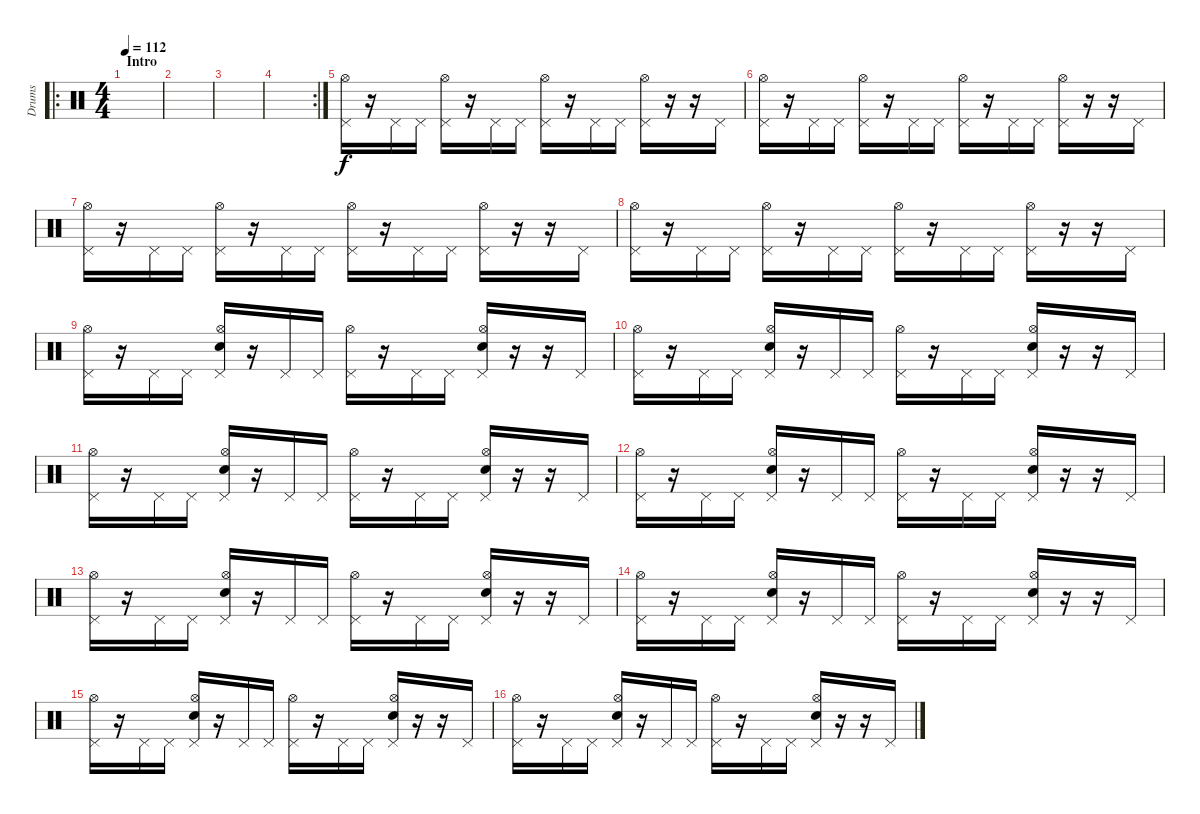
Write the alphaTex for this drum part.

\track ("Drums" "Drums") {instrument percussion}
\staff {score}
\articulation defaults
\ro
\ts (4 4)
\section ("" "Intro")
\tempo 112
\clef neutral
\ks c
|
|
|
\rc 2
|
("Pedal Hi-Hat (hit)" "Hi-Hat (open)").16 r.16 "Pedal Hi-Hat (hit)".16 "Pedal Hi-Hat (hit)".16 ("Pedal Hi-Hat (hit)" "Hi-Hat (open)").16 r.16 "Pedal Hi-Hat (hit)".16 "Pedal Hi-Hat (hit)".16 ("Pedal Hi-Hat (hit)" "Hi-Hat (open)").16 r.16 "Pedal Hi-Hat (hit)".16 "Pedal Hi-Hat (hit)".16 ("Pedal Hi-Hat (hit)" "Hi-Hat (open)").16 r.16 r.16 "Pedal Hi-Hat (hit)".16 |
("Pedal Hi-Hat (hit)" "Hi-Hat (open)").16 r.16 "Pedal Hi-Hat (hit)".16 "Pedal Hi-Hat (hit)".16 ("Pedal Hi-Hat (hit)" "Hi-Hat (open)").16 r.16 "Pedal Hi-Hat (hit)".16 "Pedal Hi-Hat (hit)".16 ("Pedal Hi-Hat (hit)" "Hi-Hat (open)").16 r.16 "Pedal Hi-Hat (hit)".16 "Pedal Hi-Hat (hit)".16 ("Pedal Hi-Hat (hit)" "Hi-Hat (open)").16 r.16 r.16 "Pedal Hi-Hat (hit)".16 |
("Pedal Hi-Hat (hit)" "Hi-Hat (open)").16 r.16 "Pedal Hi-Hat (hit)".16 "Pedal Hi-Hat (hit)".16 ("Pedal Hi-Hat (hit)" "Hi-Hat (open)").16 r.16 "Pedal Hi-Hat (hit)".16 "Pedal Hi-Hat (hit)".16 ("Pedal Hi-Hat (hit)" "Hi-Hat (open)").16 r.16 "Pedal Hi-Hat (hit)".16 "Pedal Hi-Hat (hit)".16 ("Pedal Hi-Hat (hit)" "Hi-Hat (open)").16 r.16 r.16 "Pedal Hi-Hat (hit)".16 |
("Pedal Hi-Hat (hit)" "Hi-Hat (open)").16 r.16 "Pedal Hi-Hat (hit)".16 "Pedal Hi-Hat (hit)".16 ("Pedal Hi-Hat (hit)" "Hi-Hat (open)").16 r.16 "Pedal Hi-Hat (hit)".16 "Pedal Hi-Hat (hit)".16 ("Pedal Hi-Hat (hit)" "Hi-Hat (open)").16 r.16 "Pedal Hi-Hat (hit)".16 "Pedal Hi-Hat (hit)".16 ("Pedal Hi-Hat (hit)" "Hi-Hat (open)").16 r.16 r.16 "Pedal Hi-Hat (hit)".16 |
("Pedal Hi-Hat (hit)" "Hi-Hat (open)").16 r.16 "Pedal Hi-Hat (hit)".16 "Pedal Hi-Hat (hit)".16 ("Pedal Hi-Hat (hit)" "Hi-Hat (open)" "Electric Snare (hit)").16 r.16 "Pedal Hi-Hat (hit)".16 "Pedal Hi-Hat (hit)".16 ("Pedal Hi-Hat (hit)" "Hi-Hat (open)").16 r.16 "Pedal Hi-Hat (hit)".16 "Pedal Hi-Hat (hit)".16 ("Pedal Hi-Hat (hit)" "Hi-Hat (open)" "Electric Snare (hit)").16 r.16 r.16 "Pedal Hi-Hat (hit)".16 |
("Pedal Hi-Hat (hit)" "Hi-Hat (open)").16 r.16 "Pedal Hi-Hat (hit)".16 "Pedal Hi-Hat (hit)".16 ("Pedal Hi-Hat (hit)" "Hi-Hat (open)" "Electric Snare (hit)").16 r.16 "Pedal Hi-Hat (hit)".16 "Pedal Hi-Hat (hit)".16 ("Pedal Hi-Hat (hit)" "Hi-Hat (open)").16 r.16 "Pedal Hi-Hat (hit)".16 "Pedal Hi-Hat (hit)".16 ("Pedal Hi-Hat (hit)" "Hi-Hat (open)" "Electric Snare (hit)").16 r.16 r.16 "Pedal Hi-Hat (hit)".16 |
("Pedal Hi-Hat (hit)" "Hi-Hat (open)").16 r.16 "Pedal Hi-Hat (hit)".16 "Pedal Hi-Hat (hit)".16 ("Pedal Hi-Hat (hit)" "Hi-Hat (open)" "Electric Snare (hit)").16 r.16 "Pedal Hi-Hat (hit)".16 "Pedal Hi-Hat (hit)".16 ("Pedal Hi-Hat (hit)" "Hi-Hat (open)").16 r.16 "Pedal Hi-Hat (hit)".16 "Pedal Hi-Hat (hit)".16 ("Pedal Hi-Hat (hit)" "Hi-Hat (open)" "Electric Snare (hit)").16 r.16 r.16 "Pedal Hi-Hat (hit)".16 |
("Pedal Hi-Hat (hit)" "Hi-Hat (open)").16 r.16 "Pedal Hi-Hat (hit)".16 "Pedal Hi-Hat (hit)".16 ("Pedal Hi-Hat (hit)" "Hi-Hat (open)" "Electric Snare (hit)").16 r.16 "Pedal Hi-Hat (hit)".16 "Pedal Hi-Hat (hit)".16 ("Pedal Hi-Hat (hit)" "Hi-Hat (open)").16 r.16 "Pedal Hi-Hat (hit)".16 "Pedal Hi-Hat (hit)".16 ("Pedal Hi-Hat (hit)" "Hi-Hat (open)" "Electric Snare (hit)").16 r.16 r.16 "Pedal Hi-Hat (hit)".16 |
("Pedal Hi-Hat (hit)" "Hi-Hat (open)").16 r.16 "Pedal Hi-Hat (hit)".16 "Pedal Hi-Hat (hit)".16 ("Pedal Hi-Hat (hit)" "Hi-Hat (open)" "Electric Snare (hit)").16 r.16 "Pedal Hi-Hat (hit)".16 "Pedal Hi-Hat (hit)".16 ("Pedal Hi-Hat (hit)" "Hi-Hat (open)").16 r.16 "Pedal Hi-Hat (hit)".16 "Pedal Hi-Hat (hit)".16 ("Pedal Hi-Hat (hit)" "Hi-Hat (open)" "Electric Snare (hit)").16 r.16 r.16 "Pedal Hi-Hat (hit)".16 |
("Pedal Hi-Hat (hit)" "Hi-Hat (open)").16 r.16 "Pedal Hi-Hat (hit)".16 "Pedal Hi-Hat (hit)".16 ("Pedal Hi-Hat (hit)" "Hi-Hat (open)" "Electric Snare (hit)").16 r.16 "Pedal Hi-Hat (hit)".16 "Pedal Hi-Hat (hit)".16 ("Pedal Hi-Hat (hit)" "Hi-Hat (open)").16 r.16 "Pedal Hi-Hat (hit)".16 "Pedal Hi-Hat (hit)".16 ("Pedal Hi-Hat (hit)" "Hi-Hat (open)" "Electric Snare (hit)").16 r.16 r.16 "Pedal Hi-Hat (hit)".16 |
("Pedal Hi-Hat (hit)" "Hi-Hat (open)").16 r.16 "Pedal Hi-Hat (hit)".16 "Pedal Hi-Hat (hit)".16 ("Pedal Hi-Hat (hit)" "Hi-Hat (open)" "Electric Snare (hit)").16 r.16 "Pedal Hi-Hat (hit)".16 "Pedal Hi-Hat (hit)".16 ("Pedal Hi-Hat (hit)" "Hi-Hat (open)").16 r.16 "Pedal Hi-Hat (hit)".16 "Pedal Hi-Hat (hit)".16 ("Pedal Hi-Hat (hit)" "Hi-Hat (open)" "Electric Snare (hit)").16 r.16 r.16 "Pedal Hi-Hat (hit)".16 |
("Pedal Hi-Hat (hit)" "Hi-Hat (open)").16 r.16 "Pedal Hi-Hat (hit)".16 "Pedal Hi-Hat (hit)".16 ("Pedal Hi-Hat (hit)" "Hi-Hat (open)" "Electric Snare (hit)").16 r.16 "Pedal Hi-Hat (hit)".16 "Pedal Hi-Hat (hit)".16 ("Pedal Hi-Hat (hit)" "Hi-Hat (open)").16 r.16 "Pedal Hi-Hat (hit)".16 "Pedal Hi-Hat (hit)".16 ("Pedal Hi-Hat (hit)" "Hi-Hat (open)" "Electric Snare (hit)").16 r.16 r.16 "Pedal Hi-Hat (hit)".16
